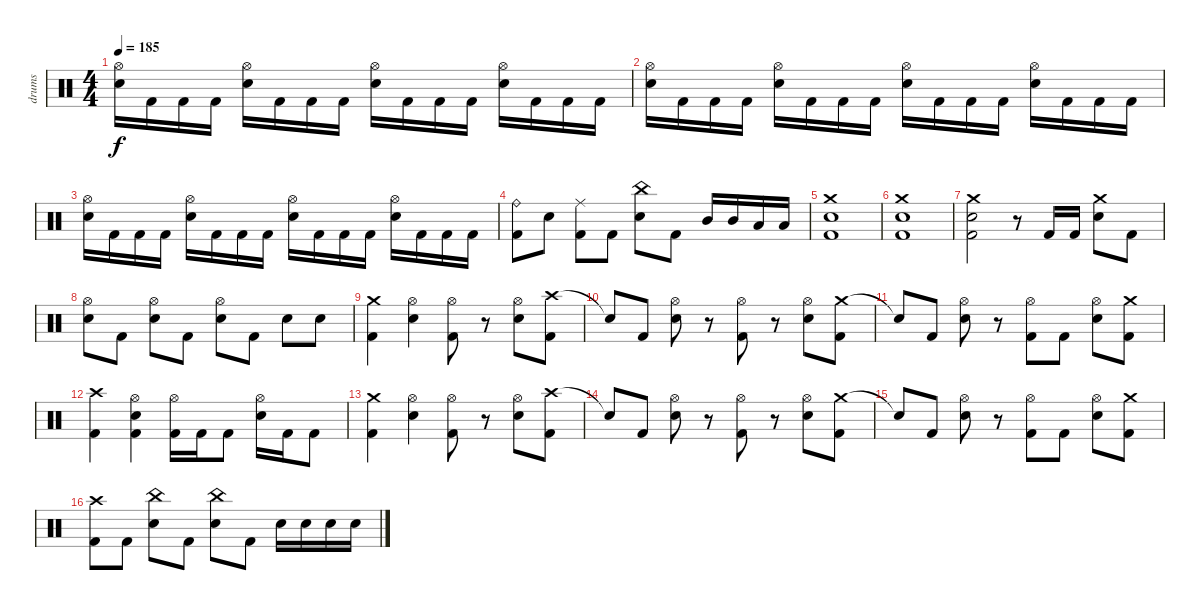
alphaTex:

\track ("drums" "drums") {instrument percussion}
\staff {score}
\articulation defaults
\ts (4 4)
\tempo 185
\clef neutral
\ks c
("Hi-Hat (open)" "Snare (hit) 2").16{dy f} "Kick (hit) 2".16 "Kick (hit) 2".16 "Kick (hit) 2".16 ("Hi-Hat (open)" "Snare (hit) 2").16 "Kick (hit) 2".16 "Kick (hit) 2".16 "Kick (hit) 2".16 ("Hi-Hat (open)" "Snare (hit) 2").16 "Kick (hit) 2".16 "Kick (hit) 2".16 "Kick (hit) 2".16 ("Hi-Hat (open)" "Snare (hit) 2").16 "Kick (hit) 2".16 "Kick (hit) 2".16 "Kick (hit) 2".16 |
("Hi-Hat (open)" "Snare (hit) 2").16 "Kick (hit) 2".16 "Kick (hit) 2".16 "Kick (hit) 2".16 ("Hi-Hat (open)" "Snare (hit) 2").16 "Kick (hit) 2".16 "Kick (hit) 2".16 "Kick (hit) 2".16 ("Hi-Hat (open)" "Snare (hit) 2").16 "Kick (hit) 2".16 "Kick (hit) 2".16 "Kick (hit) 2".16 ("Hi-Hat (open)" "Snare (hit) 2").16 "Kick (hit) 2".16 "Kick (hit) 2".16 "Kick (hit) 2".16 |
("Hi-Hat (open)" "Snare (hit) 2").16 "Kick (hit) 2".16 "Kick (hit) 2".16 "Kick (hit) 2".16 ("Hi-Hat (open)" "Snare (hit) 2").16 "Kick (hit) 2".16 "Kick (hit) 2".16 "Kick (hit) 2".16 ("Hi-Hat (open)" "Snare (hit) 2").16 "Kick (hit) 2".16 "Kick (hit) 2".16 "Kick (hit) 2".16 ("Hi-Hat (open)" "Snare (hit) 2").16 "Kick (hit) 2".16 "Kick (hit) 2".16 "Kick (hit) 2".16 |
("Ride (bell)" "Kick (hit) 2").8 "Snare (hit) 2".8 ("Ride (middle)" "Kick (hit) 2").8 "Kick (hit) 2".8 ("China (hit)" "Snare (hit) 2").8 "Kick (hit) 2".8 "Mid Tom (hit)".16 "Mid Tom (hit)".16 "Low Tom (hit)".16 "Low Tom (hit)".16 |
("Crash medium (hit)" "Snare (hit) 2" "Kick (hit) 2").1 |
("Crash medium (hit)" "Snare (hit) 2" "Kick (hit) 2").1 |
("Crash medium (hit)" "Snare (hit) 2" "Kick (hit) 2").2 r.8 "Kick (hit) 2".16 "Kick (hit) 2".16 ("Crash medium (hit)" "Snare (hit) 2").8 "Kick (hit) 2".8 |
("Hi-Hat (open)" "Snare (hit) 2").8 "Kick (hit) 2".8 ("Hi-Hat (open)" "Snare (hit) 2").8 "Kick (hit) 2".8 ("Hi-Hat (open)" "Snare (hit) 2").8 "Kick (hit) 2".8 "Snare (hit) 2".8 "Snare (hit) 2".8 |
("Crash medium (hit)" "Kick (hit) 2").4 ("Hi-Hat (open)" "Snare (hit) 2").4 ("Hi-Hat (open)" "Kick (hit) 2").8 r.8 ("Hi-Hat (open)" "Snare (hit) 2").8 ("Crash high (hit)" "Kick (hit) 2").8 |
"Snare (hit)"{t}.8 "Kick (hit) 2".8 ("Hi-Hat (open)" "Snare (hit) 2").8 r.8 ("Hi-Hat (open)" "Kick (hit) 2").8 r.8 ("Hi-Hat (open)" "Snare (hit) 2").8 ("Crash medium (hit)" "Kick (hit) 2").8 |
"Snare (hit)"{t}.8 "Kick (hit) 2".8 ("Hi-Hat (open)" "Snare (hit) 2").8 r.8 ("Hi-Hat (open)" "Kick (hit) 2").8 "Kick (hit) 2".8 ("Hi-Hat (open)" "Snare (hit) 2").8 ("Crash medium (hit)" "Kick (hit) 2").8 |
("Crash high (hit)" "Kick (hit) 2").4 ("Hi-Hat (open)" "Snare (hit) 2" "Kick (hit) 2").4 ("Hi-Hat (open)" "Kick (hit) 2").16 "Kick (hit) 2".16 "Kick (hit) 2".8 ("Hi-Hat (open)" "Snare (hit) 2").16 "Kick (hit) 2".16 "Kick (hit) 2".8 |
("Crash medium (hit)" "Kick (hit) 2").4 ("Hi-Hat (open)" "Snare (hit) 2").4 ("Hi-Hat (open)" "Kick (hit) 2").8 r.8 ("Hi-Hat (open)" "Snare (hit) 2").8 ("Crash high (hit)" "Kick (hit) 2").8 |
"Snare (hit)"{t}.8 "Kick (hit) 2".8 ("Hi-Hat (open)" "Snare (hit) 2").8 r.8 ("Hi-Hat (open)" "Kick (hit) 2").8 r.8 ("Hi-Hat (open)" "Snare (hit) 2").8 ("Crash medium (hit)" "Kick (hit) 2").8 |
"Snare (hit)"{t}.8 "Kick (hit) 2".8 ("Hi-Hat (open)" "Snare (hit) 2").8 r.8 ("Hi-Hat (open)" "Kick (hit) 2").8 "Kick (hit) 2".8 ("Hi-Hat (open)" "Snare (hit) 2").8 ("Crash medium (hit)" "Kick (hit) 2").8 |
("Crash high (hit)" "Kick (hit) 2").8 "Kick (hit) 2".8 ("China (hit)" "Snare (hit) 2").8 "Kick (hit) 2".8 ("China (hit)" "Snare (hit) 2").8 "Kick (hit) 2".8 "Snare (hit) 2".16 "Snare (hit) 2".16 "Snare (hit) 2".16 "Snare (hit) 2".16
